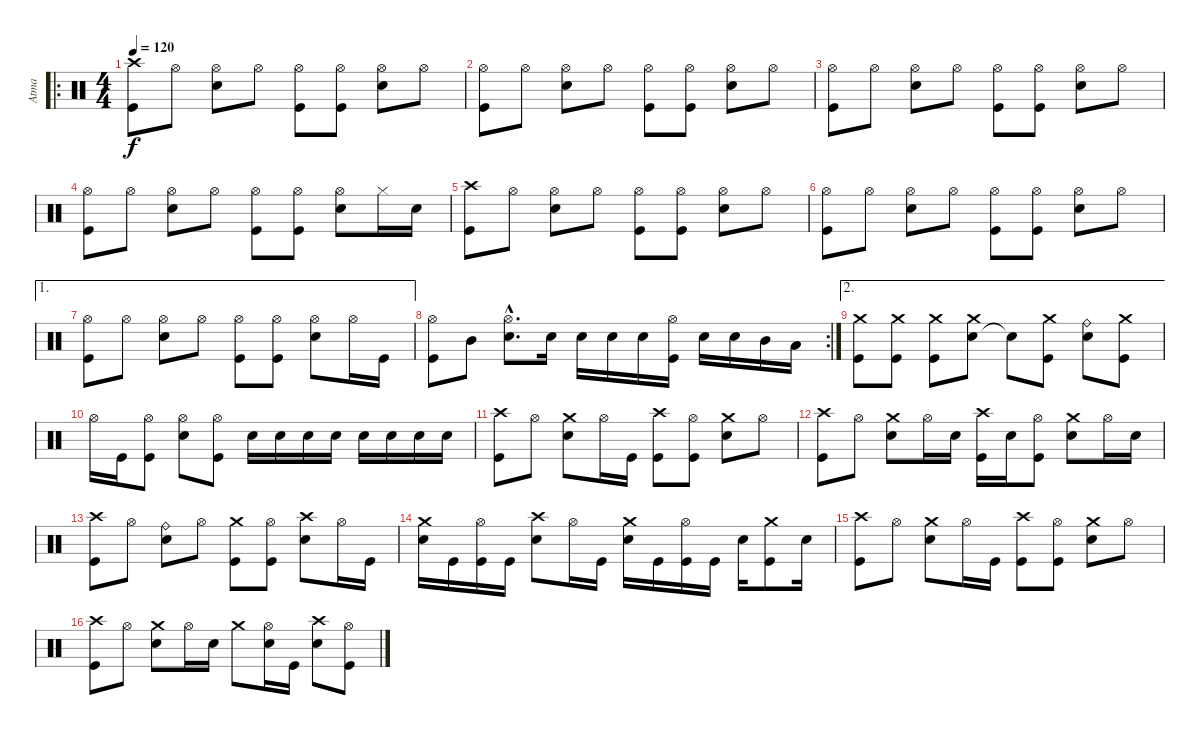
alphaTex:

\track ("Atma" "Atma") {instrument percussion}
\staff {score}
\articulation defaults
\ro
\ts (4 4)
\tempo 120
\clef neutral
\ks c
("Kick (hit)" "Crash high (hit)").8{dy f} "Hi-Hat (open)".8 ("Snare (hit) 2" "Hi-Hat (open)").8 "Hi-Hat (open)".8 ("Kick (hit)" "Hi-Hat (open)").8 ("Kick (hit)" "Hi-Hat (open)").8 ("Snare (hit) 2" "Hi-Hat (open)").8 "Hi-Hat (open)".8 |
("Kick (hit)" "Hi-Hat (open)").8 "Hi-Hat (open)".8 ("Snare (hit) 2" "Hi-Hat (open)").8 "Hi-Hat (open)".8 ("Kick (hit)" "Hi-Hat (open)").8 ("Kick (hit)" "Hi-Hat (open)").8 ("Snare (hit) 2" "Hi-Hat (open)").8 "Hi-Hat (open)".8 |
("Kick (hit)" "Hi-Hat (open)").8 "Hi-Hat (open)".8 ("Snare (hit) 2" "Hi-Hat (open)").8 "Hi-Hat (open)".8 ("Kick (hit)" "Hi-Hat (open)").8 ("Kick (hit)" "Hi-Hat (open)").8 ("Snare (hit) 2" "Hi-Hat (open)").8 "Hi-Hat (open)".8 |
("Kick (hit)" "Hi-Hat (open)").8 "Hi-Hat (open)".8 ("Snare (hit) 2" "Hi-Hat (open)").8 "Hi-Hat (open)".8 ("Kick (hit)" "Hi-Hat (open)").8 ("Kick (hit)" "Hi-Hat (open)").8 ("Snare (hit) 2" "Hi-Hat (open)").8 "Hi-Hat (closed)".16 "Snare (hit) 2".16 |
("Kick (hit)" "Crash high (hit)").8 "Hi-Hat (open)".8 ("Snare (hit) 2" "Hi-Hat (open)").8 "Hi-Hat (open)".8 ("Kick (hit)" "Hi-Hat (open)").8 ("Kick (hit)" "Hi-Hat (open)").8 ("Snare (hit) 2" "Hi-Hat (open)").8 "Hi-Hat (open)".8 |
("Kick (hit)" "Hi-Hat (open)").8 "Hi-Hat (open)".8 ("Snare (hit) 2" "Hi-Hat (open)").8 "Hi-Hat (open)".8 ("Kick (hit)" "Hi-Hat (open)").8 ("Kick (hit)" "Hi-Hat (open)").8 ("Snare (hit) 2" "Hi-Hat (open)").8 "Hi-Hat (open)".8 |
\ae 1
("Kick (hit)" "Hi-Hat (open)").8 "Hi-Hat (open)".8 ("Snare (hit) 2" "Hi-Hat (open)").8 "Hi-Hat (open)".8 ("Kick (hit)" "Hi-Hat (open)").8 ("Kick (hit)" "Hi-Hat (open)").8 ("Snare (hit) 2" "Hi-Hat (open)").8 "Hi-Hat (open)".16 "Kick (hit)".16 |
\rc 2
("Kick (hit)" "Hi-Hat (open)").8 "Mid Tom (hit)".8 ("Snare (hit) 2"{hac} "Hi-Hat (open)"{hac}).8{d} "Snare (hit) 2".16 "Snare (hit) 2".16 "Snare (hit) 2".16 "Snare (hit) 2".16 ("Kick (hit)" "Hi-Hat (open)").16 "Snare (hit) 2".16 "Snare (hit) 2".16 "Mid Tom (hit)".16 "Low Tom (hit)".16 |
\ae 2
("Kick (hit)" "Crash medium (hit)").8 ("Kick (hit)" "Crash medium (hit)").8 ("Kick (hit)" "Crash medium (hit)").8 ("Snare (hit) 2" "Crash medium (hit)").8 "Snare (hit)"{t}.8 ("Kick (hit)" "Crash medium (hit)").8 ("Snare (hit) 2" "Ride (bell)").8 ("Kick (hit)" "Crash medium (hit)").8 |
"Hi-Hat (open)".16 "Kick (hit)".16 ("Kick (hit)" "Hi-Hat (open)").8 ("Snare (hit) 2" "Hi-Hat (open)").8 ("Kick (hit)" "Hi-Hat (open)").8 "Snare (hit) 2".16 "Snare (hit) 2".16 "Snare (hit) 2".16 "Snare (hit) 2".16 "Snare (hit) 2".16 "Snare (hit) 2".16 "Snare (hit) 2".16 "Snare (hit) 2".16 |
("Kick (hit)" "Crash high (hit)").8 "Hi-Hat (open)".8 ("Snare (hit) 2" "Crash medium (hit)").8 "Hi-Hat (open)".16 "Kick (hit)".16 ("Kick (hit)" "Crash high (hit)").8 ("Kick (hit)" "Hi-Hat (open)").8 ("Snare (hit) 2" "Crash medium (hit)").8 "Hi-Hat (open)".8 |
("Kick (hit)" "Crash high (hit)").8 "Hi-Hat (open)".8 ("Snare (hit) 2" "Crash medium (hit)").8 "Hi-Hat (open)".16 "Snare (hit) 2".16 ("Kick (hit)" "Crash high (hit)").16 "Snare (hit) 2".16 ("Kick (hit)" "Hi-Hat (open)").8 ("Snare (hit) 2" "Crash medium (hit)").8 "Hi-Hat (open)".16 "Snare (hit) 2".16 |
("Kick (hit)" "Crash high (hit)").8 "Hi-Hat (open)".8 ("Snare (hit) 2" "Ride (bell)").8 "Hi-Hat (open)".8 ("Kick (hit)" "Crash medium (hit)").8 ("Kick (hit)" "Hi-Hat (open)").8 ("Snare (hit) 2" "Crash high (hit)").8 "Hi-Hat (open)".16 "Kick (hit)".16 |
("Snare (hit) 2" "Crash medium (hit)").16 "Kick (hit)".16 ("Kick (hit)" "Hi-Hat (open)").16 "Kick (hit)".16 ("Snare (hit) 2" "Crash high (hit)").8 "Hi-Hat (open)".16 "Kick (hit)".16 ("Snare (hit) 2" "Crash medium (hit)").16 "Kick (hit)".16 ("Kick (hit)" "Hi-Hat (open)").16 "Kick (hit)".16 "Snare (hit) 2".16 ("Kick (hit)" "Crash medium (hit)").8 "Snare (hit) 2".16 |
("Kick (hit)" "Crash high (hit)").8 "Hi-Hat (open)".8 ("Snare (hit) 2" "Crash medium (hit)").8 "Hi-Hat (open)".16 "Kick (hit)".16 ("Kick (hit)" "Crash high (hit)").8 ("Kick (hit)" "Hi-Hat (open)").8 ("Snare (hit) 2" "Crash medium (hit)").8 "Hi-Hat (open)".8 |
("Kick (hit)" "Crash high (hit)").8 "Hi-Hat (open)".8 ("Snare (hit) 2" "Crash medium (hit)").8 "Hi-Hat (open)".16 "Snare (hit) 2".16 "Crash medium (hit)".8 ("Snare (hit) 2" "Hi-Hat (open)").16 "Kick (hit)".16 ("Snare (hit) 2" "Crash high (hit)").8 ("Kick (hit)" "Hi-Hat (open)").8
